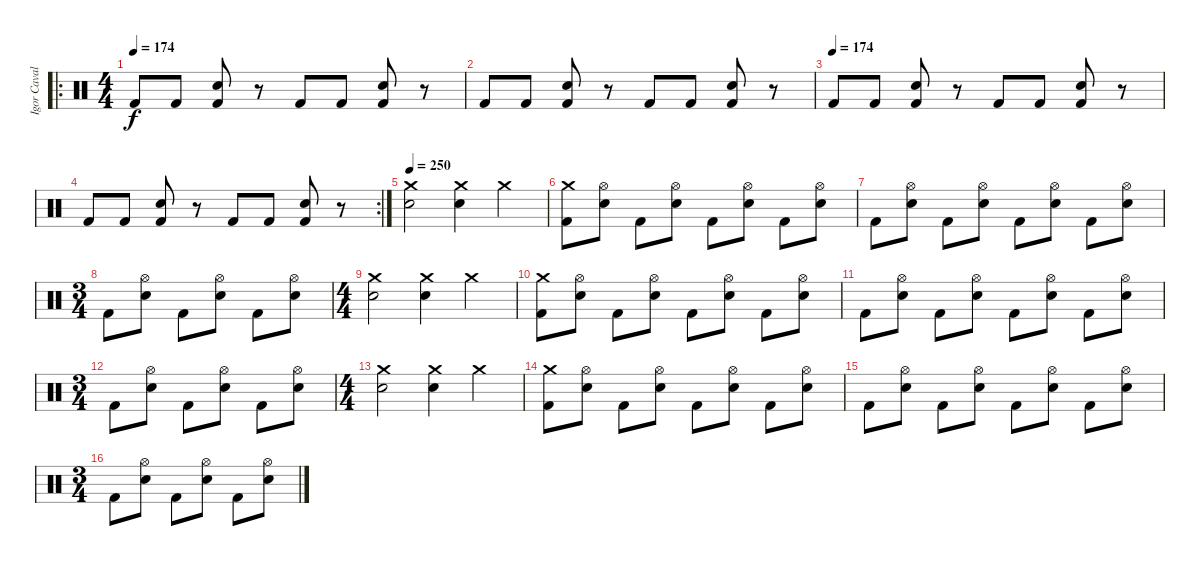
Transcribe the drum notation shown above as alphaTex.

\track ("Igor Cavalera" "Igor Caval") {solo instrument percussion}
\staff {score}
\articulation defaults
\ro
\ts (4 4)
\tempo 174
\clef neutral
\ks c "Kick (hit) 2".8{dy f} "Kick (hit) 2".8
("Kick (hit) 2" "Snare (hit) 2").8 r.8 "Kick (hit) 2".8 "Kick (hit) 2".8 ("Kick (hit) 2" "Snare (hit) 2").8 r.8 |
"Kick (hit) 2".8 "Kick (hit) 2".8 ("Kick (hit) 2" "Snare (hit) 2").8 r.8 "Kick (hit) 2".8 "Kick (hit) 2".8 ("Kick (hit) 2" "Snare (hit) 2").8 r.8 |
\tempo (174)
"Kick (hit) 2".8 "Kick (hit) 2".8 ("Kick (hit) 2" "Snare (hit) 2").8 r.8 "Kick (hit) 2".8 "Kick (hit) 2".8 ("Kick (hit) 2" "Snare (hit) 2").8 r.8 |
\rc 2 "Kick (hit) 2".8 "Kick (hit) 2".8
("Kick (hit) 2" "Snare (hit) 2").8 r.8 "Kick (hit) 2".8 "Kick (hit) 2".8 ("Kick (hit) 2" "Snare (hit) 2").8 r.8 |
\tempo 250
("Crash medium (hit)" "Electric Snare (hit)").2 ("Crash medium (hit)" "Electric Snare (hit)").4 "Crash medium (hit)".4 |
("Kick (hit) 2" "Crash medium (hit)").8 ("Electric Snare (hit)" "Hi-Hat (open)").8 "Kick (hit) 2".8 ("Electric Snare (hit)" "Hi-Hat (open)").8 "Kick (hit) 2".8 ("Electric Snare (hit)" "Hi-Hat (open)").8 "Kick (hit) 2".8 ("Electric Snare (hit)" "Hi-Hat (open)").8 |
"Kick (hit) 2".8 ("Electric Snare (hit)" "Hi-Hat (open)").8 "Kick (hit) 2".8 ("Electric Snare (hit)" "Hi-Hat (open)").8 "Kick (hit) 2".8 ("Electric Snare (hit)" "Hi-Hat (open)").8 "Kick (hit) 2".8 ("Electric Snare (hit)" "Hi-Hat (open)").8 |
\ts (3 4)
"Kick (hit) 2".8 ("Electric Snare (hit)" "Hi-Hat (open)").8 "Kick (hit) 2".8 ("Electric Snare (hit)" "Hi-Hat (open)").8 "Kick (hit) 2".8 ("Electric Snare (hit)" "Hi-Hat (open)").8 |
\ts (4 4)
("Crash medium (hit)" "Electric Snare (hit)").2 ("Crash medium (hit)" "Electric Snare (hit)").4 "Crash medium (hit)".4 |
("Kick (hit) 2" "Crash medium (hit)").8 ("Electric Snare (hit)" "Hi-Hat (open)").8 "Kick (hit) 2".8 ("Electric Snare (hit)" "Hi-Hat (open)").8 "Kick (hit) 2".8 ("Electric Snare (hit)" "Hi-Hat (open)").8 "Kick (hit) 2".8 ("Electric Snare (hit)" "Hi-Hat (open)").8 |
"Kick (hit) 2".8 ("Electric Snare (hit)" "Hi-Hat (open)").8 "Kick (hit) 2".8 ("Electric Snare (hit)" "Hi-Hat (open)").8 "Kick (hit) 2".8 ("Electric Snare (hit)" "Hi-Hat (open)").8 "Kick (hit) 2".8 ("Electric Snare (hit)" "Hi-Hat (open)").8 |
\ts (3 4)
"Kick (hit) 2".8 ("Electric Snare (hit)" "Hi-Hat (open)").8 "Kick (hit) 2".8 ("Electric Snare (hit)" "Hi-Hat (open)").8 "Kick (hit) 2".8 ("Electric Snare (hit)" "Hi-Hat (open)").8 |
\ts (4 4)
("Crash medium (hit)" "Electric Snare (hit)").2 ("Crash medium (hit)" "Electric Snare (hit)").4 "Crash medium (hit)".4 |
("Kick (hit) 2" "Crash medium (hit)").8 ("Electric Snare (hit)" "Hi-Hat (open)").8 "Kick (hit) 2".8 ("Electric Snare (hit)" "Hi-Hat (open)").8 "Kick (hit) 2".8 ("Electric Snare (hit)" "Hi-Hat (open)").8 "Kick (hit) 2".8 ("Electric Snare (hit)" "Hi-Hat (open)").8 |
"Kick (hit) 2".8 ("Electric Snare (hit)" "Hi-Hat (open)").8 "Kick (hit) 2".8 ("Electric Snare (hit)" "Hi-Hat (open)").8 "Kick (hit) 2".8 ("Electric Snare (hit)" "Hi-Hat (open)").8 "Kick (hit) 2".8 ("Electric Snare (hit)" "Hi-Hat (open)").8 |
\ts (3 4)
"Kick (hit) 2".8 ("Electric Snare (hit)" "Hi-Hat (open)").8 "Kick (hit) 2".8 ("Electric Snare (hit)" "Hi-Hat (open)").8 "Kick (hit) 2".8 ("Electric Snare (hit)" "Hi-Hat (open)").8
